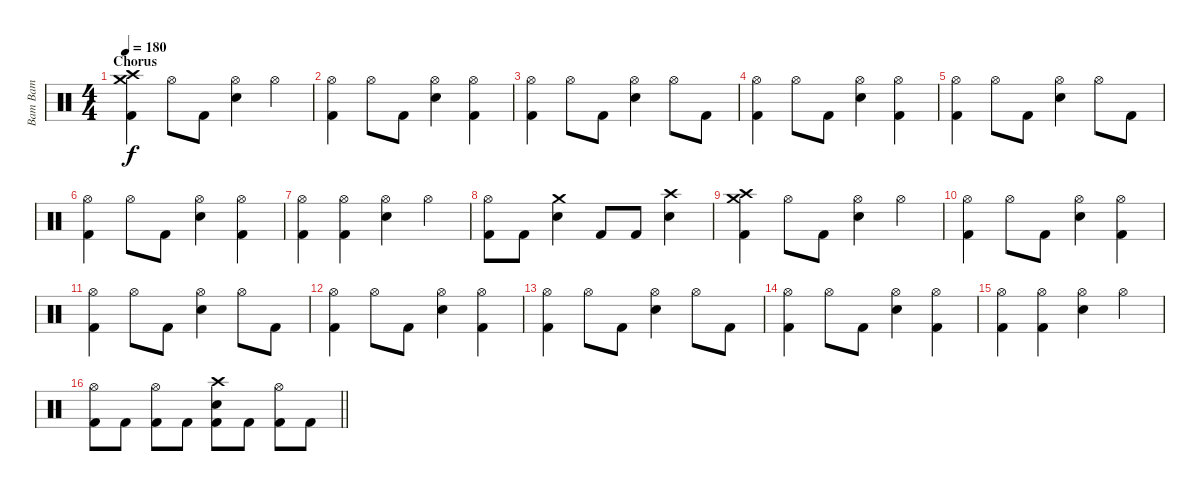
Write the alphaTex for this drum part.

\track ("Bam Bam" "Bam Bam") {instrument percussion}
\staff {score}
\articulation defaults
\ts (4 4)
\section ("" "Chorus")
\tempo 180
\clef neutral
\ks c
("Crash medium (hit)" "Crash high (hit)" "Kick (hit) 2").4{dy f} "Hi-Hat (open)".8 "Kick (hit) 2".8 ("Hi-Hat (open)" "Electric Snare (hit)").4 "Hi-Hat (open)".4 |
("Hi-Hat (open)" "Kick (hit) 2").4 "Hi-Hat (open)".8 "Kick (hit) 2".8 ("Hi-Hat (open)" "Electric Snare (hit)").4 ("Hi-Hat (open)" "Kick (hit) 2").4 |
("Hi-Hat (open)" "Kick (hit) 2").4 "Hi-Hat (open)".8 "Kick (hit) 2".8 ("Hi-Hat (open)" "Electric Snare (hit)").4 "Hi-Hat (open)".8 "Kick (hit) 2".8 |
("Hi-Hat (open)" "Kick (hit) 2").4 "Hi-Hat (open)".8 "Kick (hit) 2".8 ("Hi-Hat (open)" "Electric Snare (hit)").4 ("Hi-Hat (open)" "Kick (hit) 2").4 |
("Hi-Hat (open)" "Kick (hit) 2").4 "Hi-Hat (open)".8 "Kick (hit) 2".8 ("Hi-Hat (open)" "Electric Snare (hit)").4 "Hi-Hat (open)".8 "Kick (hit) 2".8 |
("Hi-Hat (open)" "Kick (hit) 2").4 "Hi-Hat (open)".8 "Kick (hit) 2".8 ("Hi-Hat (open)" "Electric Snare (hit)").4 ("Hi-Hat (open)" "Kick (hit) 2").4 |
("Hi-Hat (open)" "Kick (hit) 2").4 ("Hi-Hat (open)" "Kick (hit) 2").4 ("Hi-Hat (open)" "Electric Snare (hit)").4 "Hi-Hat (open)".4 |
("Hi-Hat (open)" "Kick (hit) 2").8 "Kick (hit) 2".8 ("Crash medium (hit)" "Electric Snare (hit)").4 "Kick (hit) 2".8 "Kick (hit) 2".8 ("Crash high (hit)" "Electric Snare (hit)").4 |
("Crash medium (hit)" "Crash high (hit)" "Kick (hit) 2").4 "Hi-Hat (open)".8 "Kick (hit) 2".8 ("Hi-Hat (open)" "Electric Snare (hit)").4 "Hi-Hat (open)".4 |
("Hi-Hat (open)" "Kick (hit) 2").4 "Hi-Hat (open)".8 "Kick (hit) 2".8 ("Hi-Hat (open)" "Electric Snare (hit)").4 ("Hi-Hat (open)" "Kick (hit) 2").4 |
("Hi-Hat (open)" "Kick (hit) 2").4 "Hi-Hat (open)".8 "Kick (hit) 2".8 ("Hi-Hat (open)" "Electric Snare (hit)").4 "Hi-Hat (open)".8 "Kick (hit) 2".8 |
("Hi-Hat (open)" "Kick (hit) 2").4 "Hi-Hat (open)".8 "Kick (hit) 2".8 ("Hi-Hat (open)" "Electric Snare (hit)").4 ("Hi-Hat (open)" "Kick (hit) 2").4 |
("Hi-Hat (open)" "Kick (hit) 2").4 "Hi-Hat (open)".8 "Kick (hit) 2".8 ("Hi-Hat (open)" "Electric Snare (hit)").4 "Hi-Hat (open)".8 "Kick (hit) 2".8 |
("Hi-Hat (open)" "Kick (hit) 2").4 "Hi-Hat (open)".8 "Kick (hit) 2".8 ("Hi-Hat (open)" "Electric Snare (hit)").4 ("Hi-Hat (open)" "Kick (hit) 2").4 |
("Hi-Hat (open)" "Kick (hit) 2").4 ("Hi-Hat (open)" "Kick (hit) 2").4 ("Hi-Hat (open)" "Electric Snare (hit)").4 "Hi-Hat (open)".4 |
\barLineRight lightlight
("Hi-Hat (open)" "Kick (hit) 2").8 "Kick (hit) 2".8 ("Hi-Hat (open)" "Kick (hit) 2").8 "Kick (hit) 2".8 ("Crash high (hit)" "Electric Snare (hit)" "Kick (hit) 2").8 "Kick (hit) 2".8 ("Hi-Hat (open)" "Kick (hit) 2").8 "Kick (hit) 2".8
